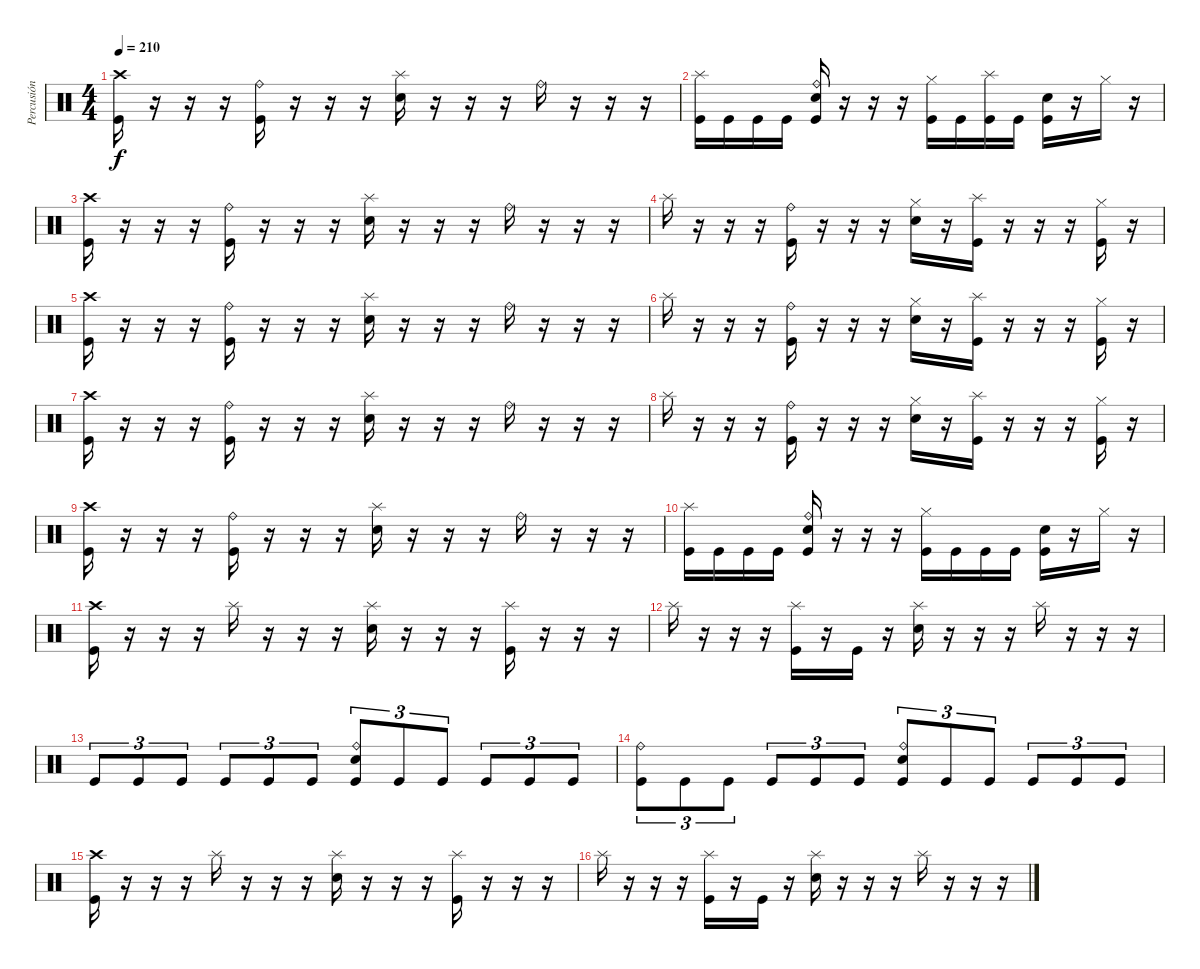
\track ("Percusión" "Percusión") {instrument percussion}
\staff {score}
\articulation defaults
\ts (4 4)
\tempo 210
\clef neutral
\ks c
("Crash high (hit)" "Kick (hit)").16{dy f} r.16 r.16 r.16 ("Ride (bell)" "Kick (hit)").16 r.16 r.16 r.16 ("Splash (hit)" "Snare (hit) 2").16 r.16 r.16 r.16 "Ride (bell)".16 r.16 r.16 r.16 |
("Splash (hit)" "Kick (hit)").16 "Kick (hit)".16 "Kick (hit)".16 "Kick (hit)".16 ("Ride (bell)" "Snare (hit) 2" "Kick (hit)").16 r.16 r.16 r.16 ("Hi-Hat (closed)" "Kick (hit)").16 "Kick (hit)".16 ("Splash (hit)" "Kick (hit)").16 "Kick (hit)".16 ("Snare (hit) 2" "Kick (hit)").16 r.16 "Hi-Hat (closed)".16 r.16 |
("Crash high (hit)" "Kick (hit)").16 r.16 r.16 r.16 ("Ride (bell)" "Kick (hit)").16 r.16 r.16 r.16 ("Splash (hit)" "Snare (hit) 2").16 r.16 r.16 r.16 "Ride (bell)".16 r.16 r.16 r.16 |
"Splash (hit)".16 r.16 r.16 r.16 ("Ride (bell)" "Kick (hit)").16 r.16 r.16 r.16 ("Hi-Hat (closed)" "Snare (hit) 2").16 r.16 ("Splash (hit)" "Kick (hit)").16 r.16 r.16 r.16 ("Hi-Hat (closed)" "Kick (hit)").16 r.16 |
("Crash high (hit)" "Kick (hit)").16 r.16 r.16 r.16 ("Ride (bell)" "Kick (hit)").16 r.16 r.16 r.16 ("Splash (hit)" "Snare (hit) 2").16 r.16 r.16 r.16 "Ride (bell)".16 r.16 r.16 r.16 |
"Splash (hit)".16 r.16 r.16 r.16 ("Ride (bell)" "Kick (hit)").16 r.16 r.16 r.16 ("Hi-Hat (closed)" "Snare (hit) 2").16 r.16 ("Splash (hit)" "Kick (hit)").16 r.16 r.16 r.16 ("Hi-Hat (closed)" "Kick (hit)").16 r.16 |
("Crash high (hit)" "Kick (hit)").16 r.16 r.16 r.16 ("Ride (bell)" "Kick (hit)").16 r.16 r.16 r.16 ("Splash (hit)" "Snare (hit) 2").16 r.16 r.16 r.16 "Ride (bell)".16 r.16 r.16 r.16 |
"Splash (hit)".16 r.16 r.16 r.16 ("Ride (bell)" "Kick (hit)").16 r.16 r.16 r.16 ("Hi-Hat (closed)" "Snare (hit) 2").16 r.16 ("Splash (hit)" "Kick (hit)").16 r.16 r.16 r.16 ("Hi-Hat (closed)" "Kick (hit)").16 r.16 |
("Crash high (hit)" "Kick (hit)").16 r.16 r.16 r.16 ("Ride (bell)" "Kick (hit)").16 r.16 r.16 r.16 ("Splash (hit)" "Snare (hit) 2").16 r.16 r.16 r.16 "Ride (bell)".16 r.16 r.16 r.16 |
("Splash (hit)" "Kick (hit)").16 "Kick (hit)".16 "Kick (hit)".16 "Kick (hit)".16 ("Ride (bell)" "Snare (hit) 2" "Kick (hit)").16 r.16 r.16 r.16 ("Hi-Hat (closed)" "Kick (hit)").16 "Kick (hit)".16 "Kick (hit)".16 "Kick (hit)".16 ("Snare (hit) 2" "Kick (hit)").16 r.16 "Hi-Hat (closed)".16 r.16 |
("Crash high (hit)" "Kick (hit)").16 r.16 r.16 r.16 "Splash (hit)".16 r.16 r.16 r.16 ("Splash (hit)" "Snare (hit) 2").16 r.16 r.16 r.16 ("Splash (hit)" "Kick (hit)").16 r.16 r.16 r.16 |
"Splash (hit)".16 r.16 r.16 r.16 ("Splash (hit)" "Kick (hit)").16 r.16 "Kick (hit)".16 r.16 ("Splash (hit)" "Snare (hit) 2").16 r.16 r.16 r.16 "Splash (hit)".16 r.16 r.16 r.16 |
"Kick (hit)".8{tu (3 2)} "Kick (hit)".8{tu (3 2)} "Kick (hit)".8{tu (3 2)} "Kick (hit)".8{tu (3 2)} "Kick (hit)".8{tu (3 2)} "Kick (hit)".8{tu (3 2)} ("Ride (bell)" "Snare (hit) 2" "Kick (hit)").8{tu (3 2)} "Kick (hit)".8{tu (3 2)} "Kick (hit)".8{tu (3 2)} "Kick (hit)".8{tu (3 2)} "Kick (hit)".8{tu (3 2)} "Kick (hit)".8{tu (3 2)} |
("Ride (bell)" "Kick (hit)").8{tu (3 2)} "Kick (hit)".8{tu (3 2)} "Kick (hit)".8{tu (3 2)} "Kick (hit)".8{tu (3 2)} "Kick (hit)".8{tu (3 2)} "Kick (hit)".8{tu (3 2)} ("Ride (bell)" "Snare (hit) 2" "Kick (hit)").8{tu (3 2)} "Kick (hit)".8{tu (3 2)} "Kick (hit)".8{tu (3 2)} "Kick (hit)".8{tu (3 2)} "Kick (hit)".8{tu (3 2)} "Kick (hit)".8{tu (3 2)} |
("Crash high (hit)" "Kick (hit)").16 r.16 r.16 r.16 "Splash (hit)".16 r.16 r.16 r.16 ("Splash (hit)" "Snare (hit) 2").16 r.16 r.16 r.16 ("Splash (hit)" "Kick (hit)").16 r.16 r.16 r.16 |
"Splash (hit)".16 r.16 r.16 r.16 ("Splash (hit)" "Kick (hit)").16 r.16 "Kick (hit)".16 r.16 ("Splash (hit)" "Snare (hit) 2").16 r.16 r.16 r.16 "Splash (hit)".16 r.16 r.16 r.16
